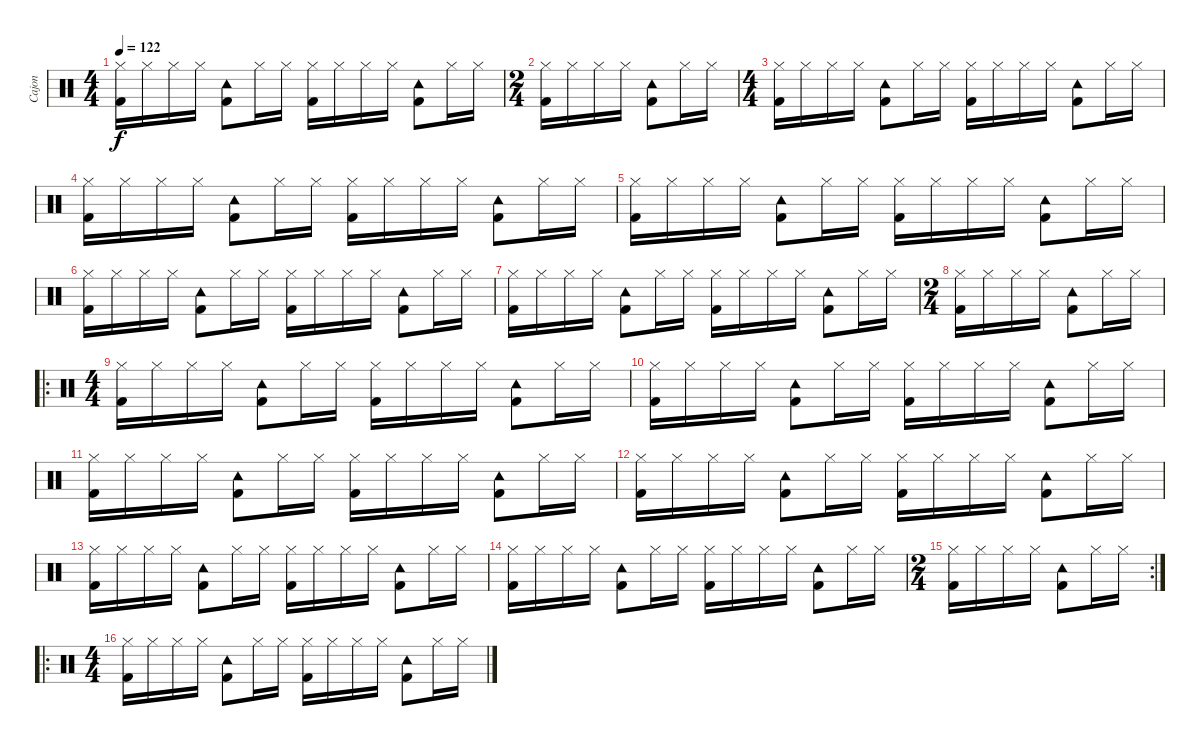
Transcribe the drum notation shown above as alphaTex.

\track ("Cajon" "Cajon") {instrument percussion}
\staff {score}
\articulation defaults
\ts (4 4)
\tempo 122
\clef neutral
\ks c
("Hi-Hat (closed)" "Kick (hit) 2").16{dy f} "Hi-Hat (closed)".16 "Hi-Hat (closed)".16 "Hi-Hat (closed)".16 ("Tambourine (hit)" "Kick (hit) 2").8 "Hi-Hat (closed)".16 "Hi-Hat (closed)".16 ("Hi-Hat (closed)" "Kick (hit) 2").16 "Hi-Hat (closed)".16 "Hi-Hat (closed)".16 "Hi-Hat (closed)".16 ("Tambourine (hit)" "Kick (hit) 2").8 "Hi-Hat (closed)".16 "Hi-Hat (closed)".16 |
\ts (2 4)
("Hi-Hat (closed)" "Kick (hit) 2").16 "Hi-Hat (closed)".16 "Hi-Hat (closed)".16 "Hi-Hat (closed)".16 ("Tambourine (hit)" "Kick (hit) 2").8 "Hi-Hat (closed)".16 "Hi-Hat (closed)".16 |
\ts (4 4)
("Hi-Hat (closed)" "Kick (hit) 2").16 "Hi-Hat (closed)".16 "Hi-Hat (closed)".16 "Hi-Hat (closed)".16 ("Tambourine (hit)" "Kick (hit) 2").8 "Hi-Hat (closed)".16 "Hi-Hat (closed)".16 ("Hi-Hat (closed)" "Kick (hit) 2").16 "Hi-Hat (closed)".16 "Hi-Hat (closed)".16 "Hi-Hat (closed)".16 ("Tambourine (hit)" "Kick (hit) 2").8 "Hi-Hat (closed)".16 "Hi-Hat (closed)".16 |
("Hi-Hat (closed)" "Kick (hit) 2").16 "Hi-Hat (closed)".16 "Hi-Hat (closed)".16 "Hi-Hat (closed)".16 ("Tambourine (hit)" "Kick (hit) 2").8 "Hi-Hat (closed)".16 "Hi-Hat (closed)".16 ("Hi-Hat (closed)" "Kick (hit) 2").16 "Hi-Hat (closed)".16 "Hi-Hat (closed)".16 "Hi-Hat (closed)".16 ("Tambourine (hit)" "Kick (hit) 2").8 "Hi-Hat (closed)".16 "Hi-Hat (closed)".16 |
("Hi-Hat (closed)" "Kick (hit) 2").16 "Hi-Hat (closed)".16 "Hi-Hat (closed)".16 "Hi-Hat (closed)".16 ("Tambourine (hit)" "Kick (hit) 2").8 "Hi-Hat (closed)".16 "Hi-Hat (closed)".16 ("Hi-Hat (closed)" "Kick (hit) 2").16 "Hi-Hat (closed)".16 "Hi-Hat (closed)".16 "Hi-Hat (closed)".16 ("Tambourine (hit)" "Kick (hit) 2").8 "Hi-Hat (closed)".16 "Hi-Hat (closed)".16 |
("Hi-Hat (closed)" "Kick (hit) 2").16 "Hi-Hat (closed)".16 "Hi-Hat (closed)".16 "Hi-Hat (closed)".16 ("Tambourine (hit)" "Kick (hit) 2").8 "Hi-Hat (closed)".16 "Hi-Hat (closed)".16 ("Hi-Hat (closed)" "Kick (hit) 2").16 "Hi-Hat (closed)".16 "Hi-Hat (closed)".16 "Hi-Hat (closed)".16 ("Tambourine (hit)" "Kick (hit) 2").8 "Hi-Hat (closed)".16 "Hi-Hat (closed)".16 |
("Hi-Hat (closed)" "Kick (hit) 2").16 "Hi-Hat (closed)".16 "Hi-Hat (closed)".16 "Hi-Hat (closed)".16 ("Tambourine (hit)" "Kick (hit) 2").8 "Hi-Hat (closed)".16 "Hi-Hat (closed)".16 ("Hi-Hat (closed)" "Kick (hit) 2").16 "Hi-Hat (closed)".16 "Hi-Hat (closed)".16 "Hi-Hat (closed)".16 ("Tambourine (hit)" "Kick (hit) 2").8 "Hi-Hat (closed)".16 "Hi-Hat (closed)".16 |
\ts (2 4)
("Hi-Hat (closed)" "Kick (hit) 2").16 "Hi-Hat (closed)".16 "Hi-Hat (closed)".16 "Hi-Hat (closed)".16 ("Tambourine (hit)" "Kick (hit) 2").8 "Hi-Hat (closed)".16 "Hi-Hat (closed)".16 |
\ro
\ts (4 4)
("Hi-Hat (closed)" "Kick (hit) 2").16 "Hi-Hat (closed)".16 "Hi-Hat (closed)".16 "Hi-Hat (closed)".16 ("Tambourine (hit)" "Kick (hit) 2").8 "Hi-Hat (closed)".16 "Hi-Hat (closed)".16 ("Hi-Hat (closed)" "Kick (hit) 2").16 "Hi-Hat (closed)".16 "Hi-Hat (closed)".16 "Hi-Hat (closed)".16 ("Tambourine (hit)" "Kick (hit) 2").8 "Hi-Hat (closed)".16 "Hi-Hat (closed)".16 |
("Hi-Hat (closed)" "Kick (hit) 2").16 "Hi-Hat (closed)".16 "Hi-Hat (closed)".16 "Hi-Hat (closed)".16 ("Tambourine (hit)" "Kick (hit) 2").8 "Hi-Hat (closed)".16 "Hi-Hat (closed)".16 ("Hi-Hat (closed)" "Kick (hit) 2").16 "Hi-Hat (closed)".16 "Hi-Hat (closed)".16 "Hi-Hat (closed)".16 ("Tambourine (hit)" "Kick (hit) 2").8 "Hi-Hat (closed)".16 "Hi-Hat (closed)".16 |
("Hi-Hat (closed)" "Kick (hit) 2").16 "Hi-Hat (closed)".16 "Hi-Hat (closed)".16 "Hi-Hat (closed)".16 ("Tambourine (hit)" "Kick (hit) 2").8 "Hi-Hat (closed)".16 "Hi-Hat (closed)".16 ("Hi-Hat (closed)" "Kick (hit) 2").16 "Hi-Hat (closed)".16 "Hi-Hat (closed)".16 "Hi-Hat (closed)".16 ("Tambourine (hit)" "Kick (hit) 2").8 "Hi-Hat (closed)".16 "Hi-Hat (closed)".16 |
("Hi-Hat (closed)" "Kick (hit) 2").16 "Hi-Hat (closed)".16 "Hi-Hat (closed)".16 "Hi-Hat (closed)".16 ("Tambourine (hit)" "Kick (hit) 2").8 "Hi-Hat (closed)".16 "Hi-Hat (closed)".16 ("Hi-Hat (closed)" "Kick (hit) 2").16 "Hi-Hat (closed)".16 "Hi-Hat (closed)".16 "Hi-Hat (closed)".16 ("Tambourine (hit)" "Kick (hit) 2").8 "Hi-Hat (closed)".16 "Hi-Hat (closed)".16 |
("Hi-Hat (closed)" "Kick (hit) 2").16 "Hi-Hat (closed)".16 "Hi-Hat (closed)".16 "Hi-Hat (closed)".16 ("Tambourine (hit)" "Kick (hit) 2").8 "Hi-Hat (closed)".16 "Hi-Hat (closed)".16 ("Hi-Hat (closed)" "Kick (hit) 2").16 "Hi-Hat (closed)".16 "Hi-Hat (closed)".16 "Hi-Hat (closed)".16 ("Tambourine (hit)" "Kick (hit) 2").8 "Hi-Hat (closed)".16 "Hi-Hat (closed)".16 |
("Hi-Hat (closed)" "Kick (hit) 2").16 "Hi-Hat (closed)".16 "Hi-Hat (closed)".16 "Hi-Hat (closed)".16 ("Tambourine (hit)" "Kick (hit) 2").8 "Hi-Hat (closed)".16 "Hi-Hat (closed)".16 ("Hi-Hat (closed)" "Kick (hit) 2").16 "Hi-Hat (closed)".16 "Hi-Hat (closed)".16 "Hi-Hat (closed)".16 ("Tambourine (hit)" "Kick (hit) 2").8 "Hi-Hat (closed)".16 "Hi-Hat (closed)".16 |
\rc 2
\ts (2 4)
("Hi-Hat (closed)" "Kick (hit) 2").16 "Hi-Hat (closed)".16 "Hi-Hat (closed)".16 "Hi-Hat (closed)".16 ("Tambourine (hit)" "Kick (hit) 2").8 "Hi-Hat (closed)".16 "Hi-Hat (closed)".16 |
\ro
\ts (4 4)
("Hi-Hat (closed)" "Kick (hit) 2").16 "Hi-Hat (closed)".16 "Hi-Hat (closed)".16 "Hi-Hat (closed)".16 ("Tambourine (hit)" "Kick (hit) 2").8 "Hi-Hat (closed)".16 "Hi-Hat (closed)".16 ("Hi-Hat (closed)" "Kick (hit) 2").16 "Hi-Hat (closed)".16 "Hi-Hat (closed)".16 "Hi-Hat (closed)".16 ("Tambourine (hit)" "Kick (hit) 2").8 "Hi-Hat (closed)".16 "Hi-Hat (closed)".16
